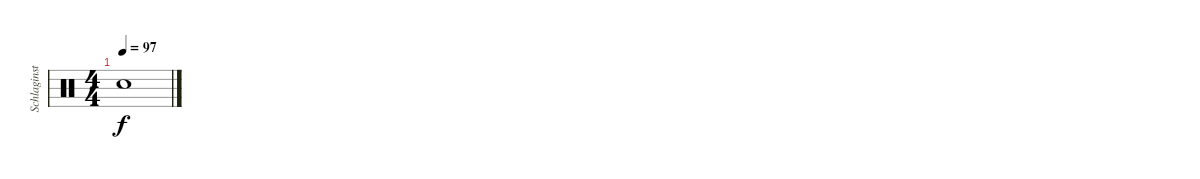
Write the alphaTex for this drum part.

\track ("Schlaginstrumente - Auswahl" "Schlaginst") {instrument percussion}
\staff {score}
\articulation defaults
\ts (4 4)
\tempo 97
\clef neutral
\ks c "Snare (hit)"{t}.1{dy f}
